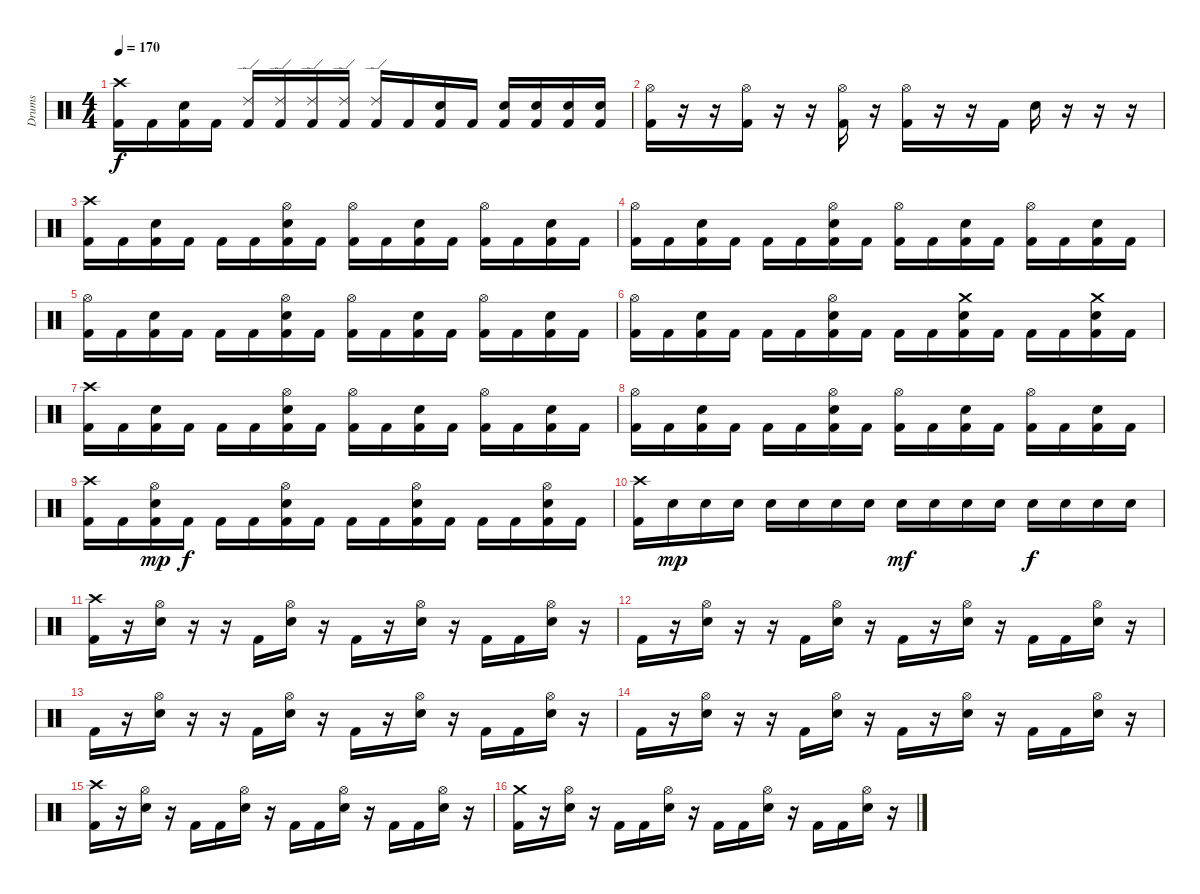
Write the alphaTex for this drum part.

\track ("Drums" "Drums") {instrument percussion}
\staff {score}
\articulation defaults
\ts (4 4)
\tempo 170
\clef neutral
\ks c
("Kick (hit) 2" "Crash high (hit)").16{dy f} "Kick (hit) 2".16 ("Kick (hit) 2" "Electric Snare (hit)").16 "Kick (hit) 2".16 ("Kick (hit) 2" "Ride (edge) 2").16 ("Kick (hit) 2" "Ride (edge) 2").16 ("Kick (hit) 2" "Ride (edge) 2").16 ("Kick (hit) 2" "Ride (edge) 2").16 ("Kick (hit) 2" "Ride (edge) 2").16 "Kick (hit) 2".16 ("Kick (hit) 2" "Electric Snare (hit)").16 "Kick (hit) 2".16 ("Kick (hit) 2" "Electric Snare (hit)").16 ("Kick (hit) 2" "Electric Snare (hit)").16 ("Kick (hit) 2" "Electric Snare (hit)").16 ("Kick (hit) 2" "Electric Snare (hit)").16 |
("Kick (hit) 2" "Hi-Hat (open)").16 r.16 r.16 ("Kick (hit) 2" "Hi-Hat (open)").16 r.16 r.16 ("Kick (hit) 2" "Hi-Hat (open)").16 r.16 ("Kick (hit) 2" "Hi-Hat (open)").16 r.16 r.16 "Kick (hit) 2".16 "Electric Snare (hit)".16 r.16 r.16 r.16 |
("Kick (hit) 2" "Crash high (hit)").16 "Kick (hit) 2".16 ("Kick (hit) 2" "Electric Snare (hit)").16 "Kick (hit) 2".16 "Kick (hit) 2".16 "Kick (hit) 2".16 ("Kick (hit) 2" "Electric Snare (hit)" "Hi-Hat (open)").16 "Kick (hit) 2".16 ("Kick (hit) 2" "Hi-Hat (open)").16 "Kick (hit) 2".16 ("Kick (hit) 2" "Electric Snare (hit)").16 "Kick (hit) 2".16 ("Kick (hit) 2" "Hi-Hat (open)").16 "Kick (hit) 2".16 ("Kick (hit) 2" "Electric Snare (hit)").16 "Kick (hit) 2".16 |
("Kick (hit) 2" "Hi-Hat (open)").16 "Kick (hit) 2".16 ("Kick (hit) 2" "Electric Snare (hit)").16 "Kick (hit) 2".16 "Kick (hit) 2".16 "Kick (hit) 2".16 ("Kick (hit) 2" "Electric Snare (hit)" "Hi-Hat (open)").16 "Kick (hit) 2".16 ("Kick (hit) 2" "Hi-Hat (open)").16 "Kick (hit) 2".16 ("Kick (hit) 2" "Electric Snare (hit)").16 "Kick (hit) 2".16 ("Kick (hit) 2" "Hi-Hat (open)").16 "Kick (hit) 2".16 ("Kick (hit) 2" "Electric Snare (hit)").16 "Kick (hit) 2".16 |
("Kick (hit) 2" "Hi-Hat (open)").16 "Kick (hit) 2".16 ("Kick (hit) 2" "Electric Snare (hit)").16 "Kick (hit) 2".16 "Kick (hit) 2".16 "Kick (hit) 2".16 ("Kick (hit) 2" "Electric Snare (hit)" "Hi-Hat (open)").16 "Kick (hit) 2".16 ("Kick (hit) 2" "Hi-Hat (open)").16 "Kick (hit) 2".16 ("Kick (hit) 2" "Electric Snare (hit)").16 "Kick (hit) 2".16 ("Kick (hit) 2" "Hi-Hat (open)").16 "Kick (hit) 2".16 ("Kick (hit) 2" "Electric Snare (hit)").16 "Kick (hit) 2".16 |
("Kick (hit) 2" "Hi-Hat (open)").16 "Kick (hit) 2".16 ("Kick (hit) 2" "Electric Snare (hit)").16 "Kick (hit) 2".16 "Kick (hit) 2".16 "Kick (hit) 2".16 ("Kick (hit) 2" "Electric Snare (hit)" "Hi-Hat (open)").16 "Kick (hit) 2".16 "Kick (hit) 2".16 "Kick (hit) 2".16 ("Kick (hit) 2" "Electric Snare (hit)" "Crash medium (hit)").16 "Kick (hit) 2".16 "Kick (hit) 2".16 "Kick (hit) 2".16 ("Kick (hit) 2" "Electric Snare (hit)" "Crash medium (hit)").16 "Kick (hit) 2".16 |
("Kick (hit) 2" "Crash high (hit)").16 "Kick (hit) 2".16 ("Kick (hit) 2" "Electric Snare (hit)").16 "Kick (hit) 2".16 "Kick (hit) 2".16 "Kick (hit) 2".16 ("Kick (hit) 2" "Electric Snare (hit)" "Hi-Hat (open)").16 "Kick (hit) 2".16 ("Kick (hit) 2" "Hi-Hat (open)").16 "Kick (hit) 2".16 ("Kick (hit) 2" "Electric Snare (hit)").16 "Kick (hit) 2".16 ("Kick (hit) 2" "Hi-Hat (open)").16 "Kick (hit) 2".16 ("Kick (hit) 2" "Electric Snare (hit)").16 "Kick (hit) 2".16 |
("Kick (hit) 2" "Hi-Hat (open)").16 "Kick (hit) 2".16 ("Kick (hit) 2" "Electric Snare (hit)").16 "Kick (hit) 2".16 "Kick (hit) 2".16 "Kick (hit) 2".16 ("Kick (hit) 2" "Electric Snare (hit)" "Hi-Hat (open)").16 "Kick (hit) 2".16 ("Kick (hit) 2" "Hi-Hat (open)").16 "Kick (hit) 2".16 ("Kick (hit) 2" "Electric Snare (hit)").16 "Kick (hit) 2".16 ("Kick (hit) 2" "Hi-Hat (open)").16 "Kick (hit) 2".16 ("Kick (hit) 2" "Electric Snare (hit)").16 "Kick (hit) 2".16 |
("Kick (hit) 2" "Crash high (hit)").16 "Kick (hit) 2".16 ("Kick (hit) 2" "Electric Snare (hit)" "Hi-Hat (open)").16{dy mp} "Kick (hit) 2".16{dy f} "Kick (hit) 2".16 "Kick (hit) 2".16 ("Kick (hit) 2" "Electric Snare (hit)" "Hi-Hat (open)").16 "Kick (hit) 2".16 "Kick (hit) 2".16 "Kick (hit) 2".16 ("Kick (hit) 2" "Electric Snare (hit)" "Hi-Hat (open)").16 "Kick (hit) 2".16 "Kick (hit) 2".16 "Kick (hit) 2".16 ("Kick (hit) 2" "Electric Snare (hit)" "Hi-Hat (open)").16 "Kick (hit) 2".16 |
("Kick (hit) 2" "Crash high (hit)").16 "Electric Snare (hit)".16{dy mp} "Electric Snare (hit)".16 "Electric Snare (hit)".16 "Electric Snare (hit)".16 "Electric Snare (hit)".16 "Electric Snare (hit)".16 "Electric Snare (hit)".16 "Electric Snare (hit)".16{dy mf} "Electric Snare (hit)".16 "Electric Snare (hit)".16 "Electric Snare (hit)".16 "Electric Snare (hit)".16{dy f} "Electric Snare (hit)".16 "Electric Snare (hit)".16 "Electric Snare (hit)".16 |
("Kick (hit) 2" "Crash high (hit)").16 r.16 ("Electric Snare (hit)" "Hi-Hat (open)").16 r.16 r.16 "Kick (hit) 2".16 ("Electric Snare (hit)" "Hi-Hat (open)").16 r.16 "Kick (hit) 2".16 r.16 ("Electric Snare (hit)" "Hi-Hat (open)").16 r.16 "Kick (hit) 2".16 "Kick (hit) 2".16 ("Electric Snare (hit)" "Hi-Hat (open)").16 r.16 |
"Kick (hit) 2".16 r.16 ("Electric Snare (hit)" "Hi-Hat (open)").16 r.16 r.16 "Kick (hit) 2".16 ("Electric Snare (hit)" "Hi-Hat (open)").16 r.16 "Kick (hit) 2".16 r.16 ("Electric Snare (hit)" "Hi-Hat (open)").16 r.16 "Kick (hit) 2".16 "Kick (hit) 2".16 ("Electric Snare (hit)" "Hi-Hat (open)").16 r.16 |
"Kick (hit) 2".16 r.16 ("Electric Snare (hit)" "Hi-Hat (open)").16 r.16 r.16 "Kick (hit) 2".16 ("Electric Snare (hit)" "Hi-Hat (open)").16 r.16 "Kick (hit) 2".16 r.16 ("Electric Snare (hit)" "Hi-Hat (open)").16 r.16 "Kick (hit) 2".16 "Kick (hit) 2".16 ("Electric Snare (hit)" "Hi-Hat (open)").16 r.16 |
"Kick (hit) 2".16 r.16 ("Electric Snare (hit)" "Hi-Hat (open)").16 r.16 r.16 "Kick (hit) 2".16 ("Electric Snare (hit)" "Hi-Hat (open)").16 r.16 "Kick (hit) 2".16 r.16 ("Electric Snare (hit)" "Hi-Hat (open)").16 r.16 "Kick (hit) 2".16 "Kick (hit) 2".16 ("Electric Snare (hit)" "Hi-Hat (open)").16 r.16 |
("Kick (hit) 2" "Crash high (hit)").16 r.16 ("Electric Snare (hit)" "Hi-Hat (open)").16 r.16 "Kick (hit) 2".16 "Kick (hit) 2".16 ("Electric Snare (hit)" "Hi-Hat (open)").16 r.16 "Kick (hit) 2".16 "Kick (hit) 2".16 ("Electric Snare (hit)" "Hi-Hat (open)").16 r.16 "Kick (hit) 2".16 "Kick (hit) 2".16 ("Electric Snare (hit)" "Hi-Hat (open)").16 r.16 |
("Kick (hit) 2" "Crash medium (hit)").16 r.16 ("Electric Snare (hit)" "Hi-Hat (open)").16 r.16 "Kick (hit) 2".16 "Kick (hit) 2".16 ("Electric Snare (hit)" "Hi-Hat (open)").16 r.16 "Kick (hit) 2".16 "Kick (hit) 2".16 ("Electric Snare (hit)" "Hi-Hat (open)").16 r.16 "Kick (hit) 2".16 "Kick (hit) 2".16 ("Electric Snare (hit)" "Hi-Hat (open)").16 r.16
